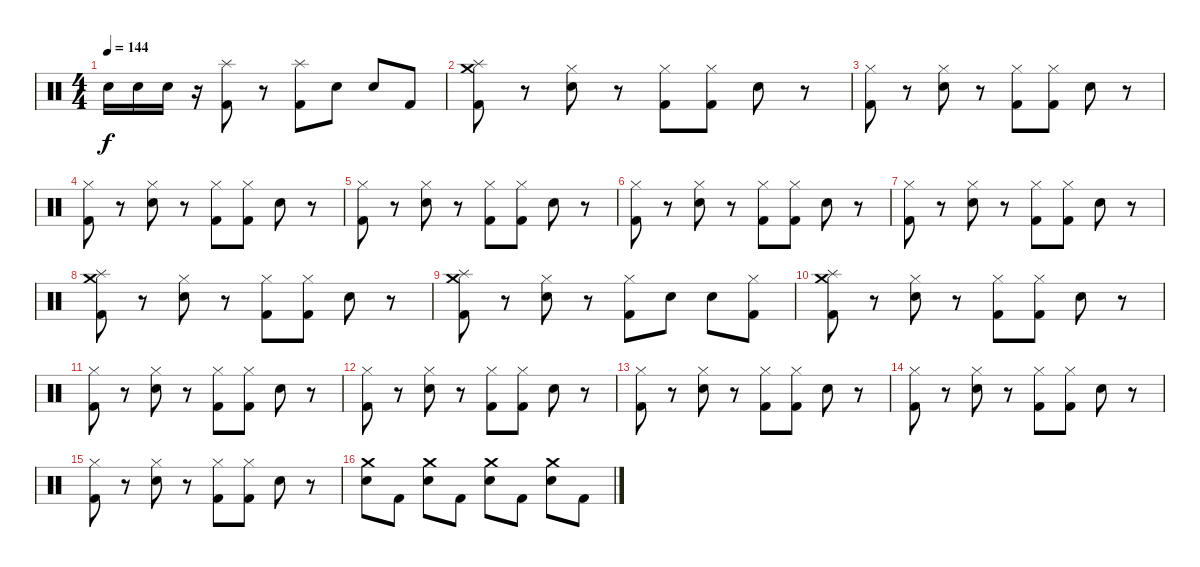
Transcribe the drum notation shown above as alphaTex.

\track "" {instrument percussion}
\staff {score}
\articulation defaults
\ts (4 4)
\tempo 144
\clef neutral
\ks c "Snare (hit) 2".16{dy f} "Snare (hit) 2".16 "Snare (hit) 2".16
r.16 ("Splash (hit)" "Kick (hit) 2").8 r.8 ("Splash (hit)" "Kick (hit) 2").8 "Snare (hit) 2".8 "Snare (hit) 2".8 "Kick (hit) 2".8 |
("Kick (hit) 2" "Splash (hit)" "Crash medium (hit)").8 r.8 ("Hi-Hat (closed)" "Snare (hit) 2").8 r.8 ("Hi-Hat (closed)" "Kick (hit) 2").8 ("Hi-Hat (closed)" "Kick (hit) 2").8 "Snare (hit) 2".8 r.8 |
("Hi-Hat (closed)" "Kick (hit) 2").8 r.8 ("Hi-Hat (closed)" "Snare (hit) 2").8 r.8 ("Hi-Hat (closed)" "Kick (hit) 2").8 ("Hi-Hat (closed)" "Kick (hit) 2").8 "Snare (hit) 2".8 r.8 |
("Hi-Hat (closed)" "Kick (hit) 2").8 r.8 ("Hi-Hat (closed)" "Snare (hit) 2").8 r.8 ("Hi-Hat (closed)" "Kick (hit) 2").8 ("Hi-Hat (closed)" "Kick (hit) 2").8 "Snare (hit) 2".8 r.8 |
("Hi-Hat (closed)" "Kick (hit) 2").8 r.8 ("Hi-Hat (closed)" "Snare (hit) 2").8 r.8 ("Hi-Hat (closed)" "Kick (hit) 2").8 ("Hi-Hat (closed)" "Kick (hit) 2").8 "Snare (hit) 2".8 r.8 |
("Hi-Hat (closed)" "Kick (hit) 2").8 r.8 ("Hi-Hat (closed)" "Snare (hit) 2").8 r.8 ("Hi-Hat (closed)" "Kick (hit) 2").8 ("Hi-Hat (closed)" "Kick (hit) 2").8 "Snare (hit) 2".8 r.8 |
("Hi-Hat (closed)" "Kick (hit) 2").8 r.8 ("Hi-Hat (closed)" "Snare (hit) 2").8 r.8 ("Hi-Hat (closed)" "Kick (hit) 2").8 ("Hi-Hat (closed)" "Kick (hit) 2").8 "Snare (hit) 2".8 r.8 |
("Splash (hit)" "Crash medium (hit)" "Kick (hit) 2").8 r.8 ("Hi-Hat (closed)" "Snare (hit) 2").8 r.8 ("Hi-Hat (closed)" "Kick (hit) 2").8 ("Hi-Hat (closed)" "Kick (hit) 2").8 "Snare (hit) 2".8 r.8 |
("Crash medium (hit)" "Splash (hit)" "Kick (hit) 2").8 r.8 ("Hi-Hat (closed)" "Snare (hit) 2").8 r.8 ("Hi-Hat (closed)" "Kick (hit) 2").8 "Snare (hit) 2".8 "Snare (hit) 2".8 ("Hi-Hat (closed)" "Kick (hit) 2").8 |
("Kick (hit) 2" "Splash (hit)" "Crash medium (hit)").8 r.8 ("Hi-Hat (closed)" "Snare (hit) 2").8 r.8 ("Hi-Hat (closed)" "Kick (hit) 2").8 ("Hi-Hat (closed)" "Kick (hit) 2").8 "Snare (hit) 2".8 r.8 |
("Hi-Hat (closed)" "Kick (hit) 2").8 r.8 ("Hi-Hat (closed)" "Snare (hit) 2").8 r.8 ("Hi-Hat (closed)" "Kick (hit) 2").8 ("Hi-Hat (closed)" "Kick (hit) 2").8 "Snare (hit) 2".8 r.8 |
("Hi-Hat (closed)" "Kick (hit) 2").8 r.8 ("Hi-Hat (closed)" "Snare (hit) 2").8 r.8 ("Hi-Hat (closed)" "Kick (hit) 2").8 ("Hi-Hat (closed)" "Kick (hit) 2").8 "Snare (hit) 2".8 r.8 |
("Hi-Hat (closed)" "Kick (hit) 2").8 r.8 ("Hi-Hat (closed)" "Snare (hit) 2").8 r.8 ("Hi-Hat (closed)" "Kick (hit) 2").8 ("Hi-Hat (closed)" "Kick (hit) 2").8 "Snare (hit) 2".8 r.8 |
("Hi-Hat (closed)" "Kick (hit) 2").8 r.8 ("Hi-Hat (closed)" "Snare (hit) 2").8 r.8 ("Hi-Hat (closed)" "Kick (hit) 2").8 ("Hi-Hat (closed)" "Kick (hit) 2").8 "Snare (hit) 2".8 r.8 |
("Hi-Hat (closed)" "Kick (hit) 2").8 r.8 ("Hi-Hat (closed)" "Snare (hit) 2").8 r.8 ("Hi-Hat (closed)" "Kick (hit) 2").8 ("Hi-Hat (closed)" "Kick (hit) 2").8 "Snare (hit) 2".8 r.8 |
("Crash medium (hit)" "Snare (hit) 2").8 "Kick (hit) 2".8 ("Crash medium (hit)" "Snare (hit) 2").8 "Kick (hit) 2".8 ("Crash medium (hit)" "Snare (hit) 2").8 "Kick (hit) 2".8 ("Crash medium (hit)" "Snare (hit) 2").8 "Kick (hit) 2".8
